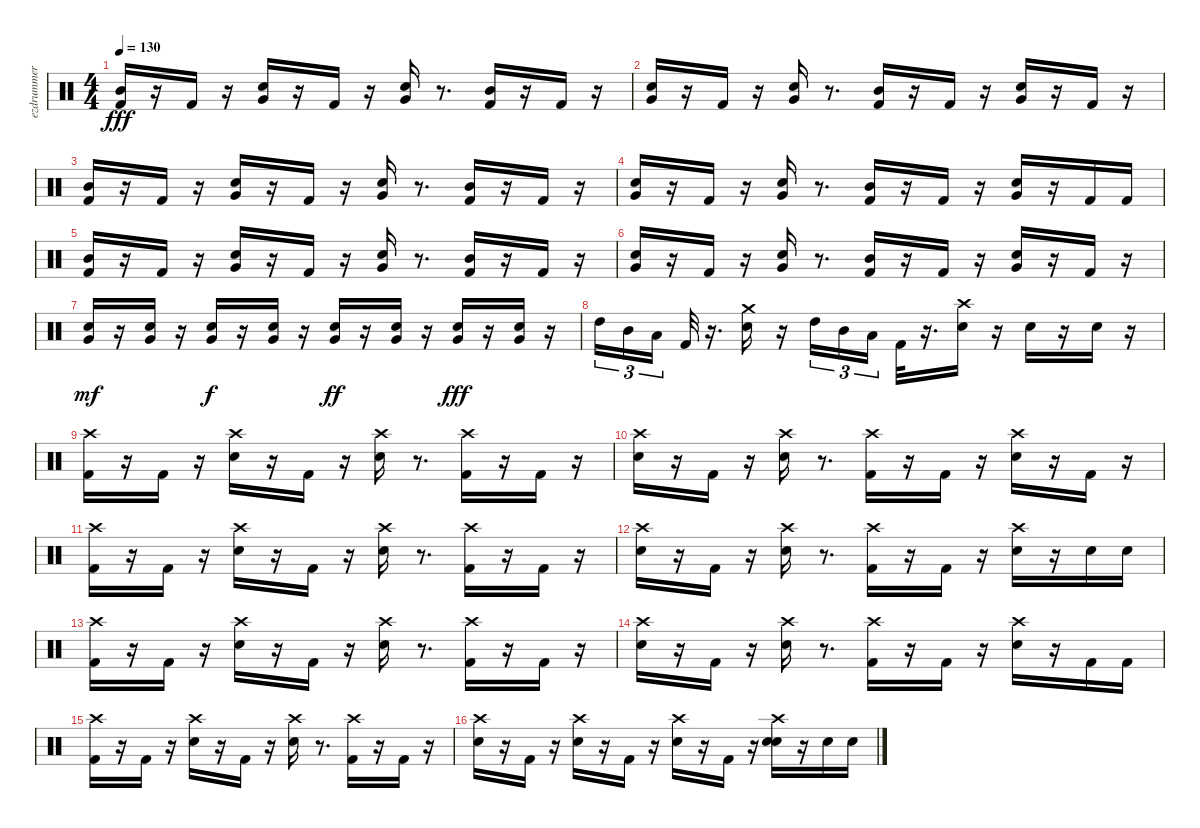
\track ("ezdrummer 01" "ezdrummer ") {instrument percussion}
\staff {score}
\articulation defaults
\ts (4 4)
\tempo 130
\clef neutral
\ks c
("Mid Tom (hit)" "Kick (hit) 2").16{dy fff} r.16 "Kick (hit) 2".16 r.16 ("Snare (hit) 2" "Very Low Tom (hit)").16 r.16 "Kick (hit) 2".16 r.16 ("Very Low Tom (hit)" "Snare (hit) 2").16 r.8{d} ("Kick (hit) 2" "Mid Tom (hit)").16 r.16 "Kick (hit) 2".16 r.16 |
("Snare (hit) 2" "Very Low Tom (hit)").16 r.16 "Kick (hit) 2".16 r.16 ("Snare (hit) 2" "Very Low Tom (hit)").16 r.8{d} ("Kick (hit) 2" "Mid Tom (hit)").16 r.16 "Kick (hit) 2".16 r.16 ("Very Low Tom (hit)" "Snare (hit) 2").16 r.16 "Kick (hit) 2".16 r.16 |
("Mid Tom (hit)" "Kick (hit) 2").16 r.16 "Kick (hit) 2".16 r.16 ("Snare (hit) 2" "Very Low Tom (hit)").16 r.16 "Kick (hit) 2".16 r.16 ("Very Low Tom (hit)" "Snare (hit) 2").16 r.8{d} ("Kick (hit) 2" "Mid Tom (hit)").16 r.16 "Kick (hit) 2".16 r.16 |
("Snare (hit) 2" "Very Low Tom (hit)").16 r.16 "Kick (hit) 2".16 r.16 ("Snare (hit) 2" "Very Low Tom (hit)").16 r.8{d} ("Kick (hit) 2" "Mid Tom (hit)").16 r.16 "Kick (hit) 2".16 r.16 ("Snare (hit) 2" "Very Low Tom (hit)").16 r.16 "Kick (hit) 2".16 "Kick (hit) 2".16 |
("Mid Tom (hit)" "Kick (hit) 2").16 r.16 "Kick (hit) 2".16 r.16 ("Snare (hit) 2" "Very Low Tom (hit)").16 r.16 "Kick (hit) 2".16 r.16 ("Very Low Tom (hit)" "Snare (hit) 2").16 r.8{d} ("Kick (hit) 2" "Mid Tom (hit)").16 r.16 "Kick (hit) 2".16 r.16 |
("Snare (hit) 2" "Very Low Tom (hit)").16 r.16 "Kick (hit) 2".16 r.16 ("Snare (hit) 2" "Very Low Tom (hit)").16 r.8{d} ("Kick (hit) 2" "Mid Tom (hit)").16 r.16 "Kick (hit) 2".16 r.16 ("Very Low Tom (hit)" "Snare (hit) 2").16 r.16 "Kick (hit) 2".16 r.16 |
("Snare (hit) 2" "Very Low Tom (hit)").16{dy mf} r.16 ("Snare (hit) 2" "Very Low Tom (hit)").16 r.16 ("Snare (hit) 2" "Very Low Tom (hit)").16{dy f} r.16 ("Snare (hit) 2" "Very Low Tom (hit)").16 r.16 ("Snare (hit) 2" "Very Low Tom (hit)").16{dy ff} r.16 ("Snare (hit) 2" "Very Low Tom (hit)").16 r.16 ("Snare (hit) 2" "Very Low Tom (hit)").16{dy fff} r.16 ("Snare (hit) 2" "Very Low Tom (hit)").16 r.16 |
"High Tom (hit)".16{tu (3 2)} "Mid Tom (hit)".16{tu (3 2)} "Low Tom (hit)".16{tu (3 2)} "Kick (hit) 2".32 r.16{d} ("Snare (hit) 2" "Crash medium (hit)").16 r.16 "High Tom (hit)".16{tu (3 2)} "Mid Tom (hit)".16{tu (3 2)} "Low Tom (hit)".16{tu (3 2)} "Kick (hit) 2".32 r.16{d} ("Snare (hit) 2" "Crash high (hit)").16 r.16 "Snare (hit) 2".16 r.16 "Snare (hit) 2".16 r.16 |
("Kick (hit) 2" "Crash high (hit)").16 r.16 "Kick (hit) 2".16 r.16 ("Snare (hit) 2" "Crash high (hit)").16 r.16 "Kick (hit) 2".16 r.16 ("Snare (hit) 2" "Crash high (hit)").16 r.8{d} ("Kick (hit) 2" "Crash high (hit)").16 r.16 "Kick (hit) 2".16 r.16 |
("Snare (hit) 2" "Crash high (hit)").16 r.16 "Kick (hit) 2".16 r.16 ("Snare (hit) 2" "Crash high (hit)").16 r.8{d} ("Kick (hit) 2" "Crash high (hit)").16 r.16 "Kick (hit) 2".16 r.16 ("Snare (hit) 2" "Crash high (hit)").16 r.16 "Kick (hit) 2".16 r.16 |
("Kick (hit) 2" "Crash high (hit)").16 r.16 "Kick (hit) 2".16 r.16 ("Snare (hit) 2" "Crash high (hit)").16 r.16 "Kick (hit) 2".16 r.16 ("Snare (hit) 2" "Crash high (hit)").16 r.8{d} ("Kick (hit) 2" "Crash high (hit)").16 r.16 "Kick (hit) 2".16 r.16 |
("Snare (hit) 2" "Crash high (hit)").16 r.16 "Kick (hit) 2".16 r.16 ("Snare (hit) 2" "Crash high (hit)").16 r.8{d} ("Kick (hit) 2" "Crash high (hit)").16 r.16 "Kick (hit) 2".16 r.16 ("Snare (hit) 2" "Crash high (hit)").16 r.16 "Snare (hit) 2".16 "Snare (hit) 2".16 |
("Kick (hit) 2" "Crash high (hit)").16 r.16 "Kick (hit) 2".16 r.16 ("Snare (hit) 2" "Crash high (hit)").16 r.16 "Kick (hit) 2".16 r.16 ("Snare (hit) 2" "Crash high (hit)").16 r.8{d} ("Kick (hit) 2" "Crash high (hit)").16 r.16 "Kick (hit) 2".16 r.16 |
("Snare (hit) 2" "Crash high (hit)").16 r.16 "Kick (hit) 2".16 r.16 ("Snare (hit) 2" "Crash high (hit)").16 r.8{d} ("Kick (hit) 2" "Crash high (hit)").16 r.16 "Kick (hit) 2".16 r.16 ("Snare (hit) 2" "Crash high (hit)").16 r.16 "Kick (hit) 2".16 "Kick (hit) 2".16 |
("Kick (hit) 2" "Crash high (hit)").16 r.16 "Kick (hit) 2".16 r.16 ("Snare (hit) 2" "Crash high (hit)").16 r.16 "Kick (hit) 2".16 r.16 ("Snare (hit) 2" "Crash high (hit)").16 r.8{d} ("Kick (hit) 2" "Crash high (hit)").16 r.16 "Kick (hit) 2".16 r.16 |
("Snare (hit) 2" "Crash high (hit)").16 r.16 "Kick (hit) 2".16 r.16 ("Snare (hit) 2" "Crash high (hit)").16 r.16 "Kick (hit) 2".16 r.16 ("Snare (hit) 2" "Crash high (hit)").16 r.16 "Kick (hit) 2".16 r.16 ("Snare (hit) 2" "Snare (hit) 2" "Crash high (hit)").16 r.16 "Snare (hit) 2".16 "Snare (hit) 2".16
